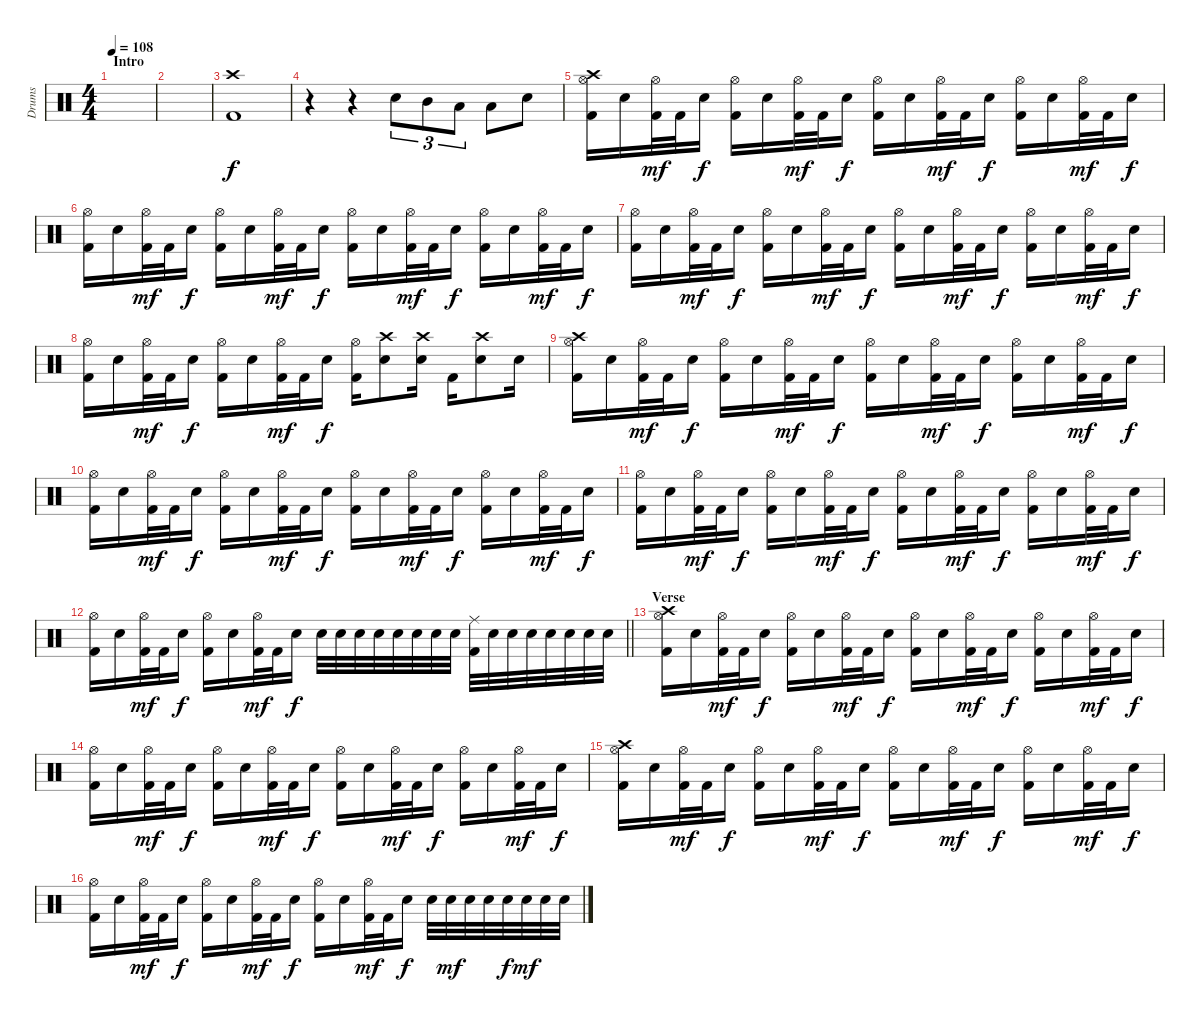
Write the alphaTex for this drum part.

\track ("Drums" "Drums") {instrument percussion}
\staff {score}
\articulation defaults
\ts (4 4)
\section ("" "Intro")
\tempo 108
\clef neutral
\ks c
|
|
("Crash high (hit)" "Kick (hit) 2").1 |
r.4 r.4 "Electric Snare (hit)".8{tu (3 2)} "Mid Tom (hit)".8{tu (3 2)} "Low Tom (hit)".8{tu (3 2)} "Low Tom (hit)".8 "Electric Snare (hit)".8 |
("Crash high (hit)" "Hi-Hat (open)" "Kick (hit) 2").16 "Electric Snare (hit)".16 ("Hi-Hat (open)" "Kick (hit) 2").32{dy mf} "Kick (hit) 2".32 "Electric Snare (hit)".16{dy f} ("Hi-Hat (open)" "Kick (hit) 2").16 "Electric Snare (hit)".16 ("Hi-Hat (open)" "Kick (hit) 2").32{dy mf} "Kick (hit) 2".32 "Electric Snare (hit)".16{dy f} ("Hi-Hat (open)" "Kick (hit) 2").16 "Electric Snare (hit)".16 ("Hi-Hat (open)" "Kick (hit) 2").32{dy mf} "Kick (hit) 2".32 "Electric Snare (hit)".16{dy f} ("Hi-Hat (open)" "Kick (hit) 2").16 "Electric Snare (hit)".16 ("Hi-Hat (open)" "Kick (hit) 2").32{dy mf} "Kick (hit) 2".32 "Electric Snare (hit)".16{dy f} |
("Hi-Hat (open)" "Kick (hit) 2").16 "Electric Snare (hit)".16 ("Hi-Hat (open)" "Kick (hit) 2").32{dy mf} "Kick (hit) 2".32 "Electric Snare (hit)".16{dy f} ("Hi-Hat (open)" "Kick (hit) 2").16 "Electric Snare (hit)".16 ("Hi-Hat (open)" "Kick (hit) 2").32{dy mf} "Kick (hit) 2".32 "Electric Snare (hit)".16{dy f} ("Hi-Hat (open)" "Kick (hit) 2").16 "Electric Snare (hit)".16 ("Hi-Hat (open)" "Kick (hit) 2").32{dy mf} "Kick (hit) 2".32 "Electric Snare (hit)".16{dy f} ("Hi-Hat (open)" "Kick (hit) 2").16 "Electric Snare (hit)".16 ("Hi-Hat (open)" "Kick (hit) 2").32{dy mf} "Kick (hit) 2".32 "Electric Snare (hit)".16{dy f} |
("Hi-Hat (open)" "Kick (hit) 2").16 "Electric Snare (hit)".16 ("Hi-Hat (open)" "Kick (hit) 2").32{dy mf} "Kick (hit) 2".32 "Electric Snare (hit)".16{dy f} ("Hi-Hat (open)" "Kick (hit) 2").16 "Electric Snare (hit)".16 ("Hi-Hat (open)" "Kick (hit) 2").32{dy mf} "Kick (hit) 2".32 "Electric Snare (hit)".16{dy f} ("Hi-Hat (open)" "Kick (hit) 2").16 "Electric Snare (hit)".16 ("Hi-Hat (open)" "Kick (hit) 2").32{dy mf} "Kick (hit) 2".32 "Electric Snare (hit)".16{dy f} ("Hi-Hat (open)" "Kick (hit) 2").16 "Electric Snare (hit)".16 ("Hi-Hat (open)" "Kick (hit) 2").32{dy mf} "Kick (hit) 2".32 "Electric Snare (hit)".16{dy f} |
("Hi-Hat (open)" "Kick (hit) 2").16 "Electric Snare (hit)".16 ("Hi-Hat (open)" "Kick (hit) 2").32{dy mf} "Kick (hit) 2".32 "Electric Snare (hit)".16{dy f} ("Hi-Hat (open)" "Kick (hit) 2").16 "Electric Snare (hit)".16 ("Hi-Hat (open)" "Kick (hit) 2").32{dy mf} "Kick (hit) 2".32 "Electric Snare (hit)".16{dy f} ("Hi-Hat (open)" "Kick (hit) 2").16 ("Crash high (hit)" "Electric Snare (hit)").8 ("Crash high (hit)" "Electric Snare (hit)").16 "Kick (hit) 2".16 ("Crash high (hit)" "Electric Snare (hit)").8 "Electric Snare (hit)".16 |
("Crash high (hit)" "Hi-Hat (open)" "Kick (hit) 2").16 "Electric Snare (hit)".16 ("Hi-Hat (open)" "Kick (hit) 2").32{dy mf} "Kick (hit) 2".32 "Electric Snare (hit)".16{dy f} ("Hi-Hat (open)" "Kick (hit) 2").16 "Electric Snare (hit)".16 ("Hi-Hat (open)" "Kick (hit) 2").32{dy mf} "Kick (hit) 2".32 "Electric Snare (hit)".16{dy f} ("Hi-Hat (open)" "Kick (hit) 2").16 "Electric Snare (hit)".16 ("Hi-Hat (open)" "Kick (hit) 2").32{dy mf} "Kick (hit) 2".32 "Electric Snare (hit)".16{dy f} ("Hi-Hat (open)" "Kick (hit) 2").16 "Electric Snare (hit)".16 ("Hi-Hat (open)" "Kick (hit) 2").32{dy mf} "Kick (hit) 2".32 "Electric Snare (hit)".16{dy f} |
("Hi-Hat (open)" "Kick (hit) 2").16 "Electric Snare (hit)".16 ("Hi-Hat (open)" "Kick (hit) 2").32{dy mf} "Kick (hit) 2".32 "Electric Snare (hit)".16{dy f} ("Hi-Hat (open)" "Kick (hit) 2").16 "Electric Snare (hit)".16 ("Hi-Hat (open)" "Kick (hit) 2").32{dy mf} "Kick (hit) 2".32 "Electric Snare (hit)".16{dy f} ("Hi-Hat (open)" "Kick (hit) 2").16 "Electric Snare (hit)".16 ("Hi-Hat (open)" "Kick (hit) 2").32{dy mf} "Kick (hit) 2".32 "Electric Snare (hit)".16{dy f} ("Hi-Hat (open)" "Kick (hit) 2").16 "Electric Snare (hit)".16 ("Hi-Hat (open)" "Kick (hit) 2").32{dy mf} "Kick (hit) 2".32 "Electric Snare (hit)".16{dy f} |
("Hi-Hat (open)" "Kick (hit) 2").16 "Electric Snare (hit)".16 ("Hi-Hat (open)" "Kick (hit) 2").32{dy mf} "Kick (hit) 2".32 "Electric Snare (hit)".16{dy f} ("Hi-Hat (open)" "Kick (hit) 2").16 "Electric Snare (hit)".16 ("Hi-Hat (open)" "Kick (hit) 2").32{dy mf} "Kick (hit) 2".32 "Electric Snare (hit)".16{dy f} ("Hi-Hat (open)" "Kick (hit) 2").16 "Electric Snare (hit)".16 ("Hi-Hat (open)" "Kick (hit) 2").32{dy mf} "Kick (hit) 2".32 "Electric Snare (hit)".16{dy f} ("Hi-Hat (open)" "Kick (hit) 2").16 "Electric Snare (hit)".16 ("Hi-Hat (open)" "Kick (hit) 2").32{dy mf} "Kick (hit) 2".32 "Electric Snare (hit)".16{dy f} |
\barLineRight lightlight
("Hi-Hat (open)" "Kick (hit) 2").16 "Electric Snare (hit)".16 ("Hi-Hat (open)" "Kick (hit) 2").32{dy mf} "Kick (hit) 2".32 "Electric Snare (hit)".16{dy f} ("Hi-Hat (open)" "Kick (hit) 2").16 "Electric Snare (hit)".16 ("Hi-Hat (open)" "Kick (hit) 2").32{dy mf} "Kick (hit) 2".32 "Electric Snare (hit)".16{dy f} "Electric Snare (hit)".32 "Electric Snare (hit)".32 "Electric Snare (hit)".32 "Electric Snare (hit)".32 "Electric Snare (hit)".32 "Electric Snare (hit)".32 "Electric Snare (hit)".32 "Electric Snare (hit)".32 ("Ride (middle)" "Kick (hit) 2").32 "Electric Snare (hit)".32 "Electric Snare (hit)".32 "Electric Snare (hit)".32 "Electric Snare (hit)".32 "Electric Snare (hit)".32 "Electric Snare (hit)".32 "Electric Snare (hit)".32 |
\section ("" "Verse")
("Crash high (hit)" "Hi-Hat (open)" "Kick (hit) 2").16 "Electric Snare (hit)".16 ("Hi-Hat (open)" "Kick (hit) 2").32{dy mf} "Kick (hit) 2".32 "Electric Snare (hit)".16{dy f} ("Hi-Hat (open)" "Kick (hit) 2").16 "Electric Snare (hit)".16 ("Hi-Hat (open)" "Kick (hit) 2").32{dy mf} "Kick (hit) 2".32 "Electric Snare (hit)".16{dy f} ("Hi-Hat (open)" "Kick (hit) 2").16 "Electric Snare (hit)".16 ("Hi-Hat (open)" "Kick (hit) 2").32{dy mf} "Kick (hit) 2".32 "Electric Snare (hit)".16{dy f} ("Hi-Hat (open)" "Kick (hit) 2").16 "Electric Snare (hit)".16 ("Hi-Hat (open)" "Kick (hit) 2").32{dy mf} "Kick (hit) 2".32 "Electric Snare (hit)".16{dy f} |
("Hi-Hat (open)" "Kick (hit) 2").16 "Electric Snare (hit)".16 ("Hi-Hat (open)" "Kick (hit) 2").32{dy mf} "Kick (hit) 2".32 "Electric Snare (hit)".16{dy f} ("Hi-Hat (open)" "Kick (hit) 2").16 "Electric Snare (hit)".16 ("Hi-Hat (open)" "Kick (hit) 2").32{dy mf} "Kick (hit) 2".32 "Electric Snare (hit)".16{dy f} ("Hi-Hat (open)" "Kick (hit) 2").16 "Electric Snare (hit)".16 ("Hi-Hat (open)" "Kick (hit) 2").32{dy mf} "Kick (hit) 2".32 "Electric Snare (hit)".16{dy f} ("Hi-Hat (open)" "Kick (hit) 2").16 "Electric Snare (hit)".16 ("Hi-Hat (open)" "Kick (hit) 2").32{dy mf} "Kick (hit) 2".32 "Electric Snare (hit)".16{dy f} |
("Crash high (hit)" "Hi-Hat (open)" "Kick (hit) 2").16 "Electric Snare (hit)".16 ("Hi-Hat (open)" "Kick (hit) 2").32{dy mf} "Kick (hit) 2".32 "Electric Snare (hit)".16{dy f} ("Hi-Hat (open)" "Kick (hit) 2").16 "Electric Snare (hit)".16 ("Hi-Hat (open)" "Kick (hit) 2").32{dy mf} "Kick (hit) 2".32 "Electric Snare (hit)".16{dy f} ("Hi-Hat (open)" "Kick (hit) 2").16 "Electric Snare (hit)".16 ("Hi-Hat (open)" "Kick (hit) 2").32{dy mf} "Kick (hit) 2".32 "Electric Snare (hit)".16{dy f} ("Hi-Hat (open)" "Kick (hit) 2").16 "Electric Snare (hit)".16 ("Hi-Hat (open)" "Kick (hit) 2").32{dy mf} "Kick (hit) 2".32 "Electric Snare (hit)".16{dy f} |
("Hi-Hat (open)" "Kick (hit) 2").16 "Electric Snare (hit)".16 ("Hi-Hat (open)" "Kick (hit) 2").32{dy mf} "Kick (hit) 2".32 "Electric Snare (hit)".16{dy f} ("Hi-Hat (open)" "Kick (hit) 2").16 "Electric Snare (hit)".16 ("Hi-Hat (open)" "Kick (hit) 2").32{dy mf} "Kick (hit) 2".32 "Electric Snare (hit)".16{dy f} ("Hi-Hat (open)" "Kick (hit) 2").16 "Electric Snare (hit)".16 ("Hi-Hat (open)" "Kick (hit) 2").32{dy mf} "Kick (hit) 2".32 "Electric Snare (hit)".16{dy f} "Electric Snare (hit)".32 "Electric Snare (hit)".32{dy mf} "Electric Snare (hit)".32 "Electric Snare (hit)".32 "Electric Snare (hit)".32{dy f} "Electric Snare (hit)".32{dy mf} "Electric Snare (hit)".32 "Electric Snare (hit)".32
